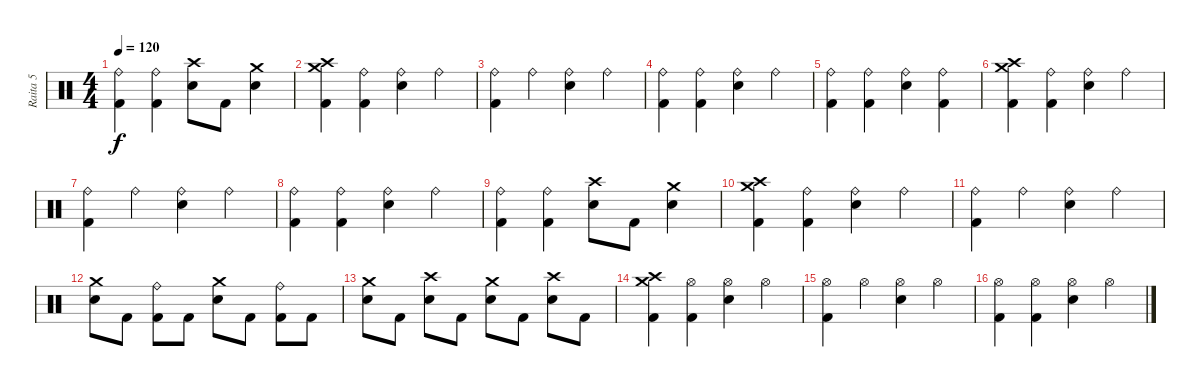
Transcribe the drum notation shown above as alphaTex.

\track ("Raita 5" "Raita 5") {instrument percussion}
\staff {score}
\articulation defaults
\ts (4 4)
\tempo 120
\clef neutral
\ks c
("Ride (bell)" "Kick (hit) 2").4{dy f} ("Ride (bell)" "Kick (hit) 2").4 ("Crash high (hit)" "Snare (hit) 2").8 "Kick (hit) 2".8 ("Crash medium (hit)" "Snare (hit) 2").4 |
("Crash medium (hit)" "Crash high (hit)" "Kick (hit) 2").4 ("Ride (bell)" "Kick (hit) 2").4 ("Ride (bell)" "Snare (hit) 2").4 "Ride (bell)".4 |
("Ride (bell)" "Kick (hit) 2").4 "Ride (bell)".4 ("Ride (bell)" "Snare (hit) 2").4 "Ride (bell)".4 |
("Ride (bell)" "Kick (hit) 2").4 ("Ride (bell)" "Kick (hit) 2").4 ("Ride (bell)" "Snare (hit) 2").4 "Ride (bell)".4 |
("Ride (bell)" "Kick (hit) 2").4 ("Ride (bell)" "Kick (hit) 2").4 ("Ride (bell)" "Snare (hit) 2").4 ("Ride (bell)" "Kick (hit) 2").4 |
("Crash medium (hit)" "Crash high (hit)" "Kick (hit) 2").4 ("Ride (bell)" "Kick (hit) 2").4 ("Ride (bell)" "Snare (hit) 2").4 "Ride (bell)".4 |
("Ride (bell)" "Kick (hit) 2").4 "Ride (bell)".4 ("Ride (bell)" "Snare (hit) 2").4 "Ride (bell)".4 |
("Ride (bell)" "Kick (hit) 2").4 ("Ride (bell)" "Kick (hit) 2").4 ("Ride (bell)" "Snare (hit) 2").4 "Ride (bell)".4 |
("Ride (bell)" "Kick (hit) 2").4 ("Ride (bell)" "Kick (hit) 2").4 ("Crash high (hit)" "Snare (hit) 2").8 "Kick (hit) 2".8 ("Crash medium (hit)" "Snare (hit) 2").4 |
("Crash medium (hit)" "Crash high (hit)" "Kick (hit) 2").4 ("Ride (bell)" "Kick (hit) 2").4 ("Ride (bell)" "Snare (hit) 2").4 "Ride (bell)".4 |
("Ride (bell)" "Kick (hit) 2").4 "Ride (bell)".4 ("Ride (bell)" "Snare (hit) 2").4 "Ride (bell)".4 |
("Crash medium (hit)" "Snare (hit) 2").8 "Kick (hit) 2".8 ("Ride (bell)" "Kick (hit) 2").8 "Kick (hit) 2".8 ("Crash medium (hit)" "Snare (hit) 2").8 "Kick (hit) 2".8 ("Ride (bell)" "Kick (hit) 2").8 "Kick (hit) 2".8 |
("Crash medium (hit)" "Snare (hit) 2").8 "Kick (hit) 2".8 ("Crash high (hit)" "Snare (hit) 2").8 "Kick (hit) 2".8 ("Crash medium (hit)" "Snare (hit) 2").8 "Kick (hit) 2".8 ("Crash high (hit)" "Snare (hit) 2").8 "Kick (hit) 2".8 |
("Crash medium (hit)" "Crash high (hit)" "Kick (hit) 2").4 ("Hi-Hat (open)" "Kick (hit) 2").4 ("Hi-Hat (open)" "Snare (hit) 2").4 "Hi-Hat (open)".4 |
("Hi-Hat (open)" "Kick (hit) 2").4 "Hi-Hat (open)".4 ("Hi-Hat (open)" "Snare (hit) 2").4 "Hi-Hat (open)".4 |
("Hi-Hat (open)" "Kick (hit) 2").4 ("Hi-Hat (open)" "Kick (hit) 2").4 ("Hi-Hat (open)" "Snare (hit) 2").4 "Hi-Hat (open)".4
